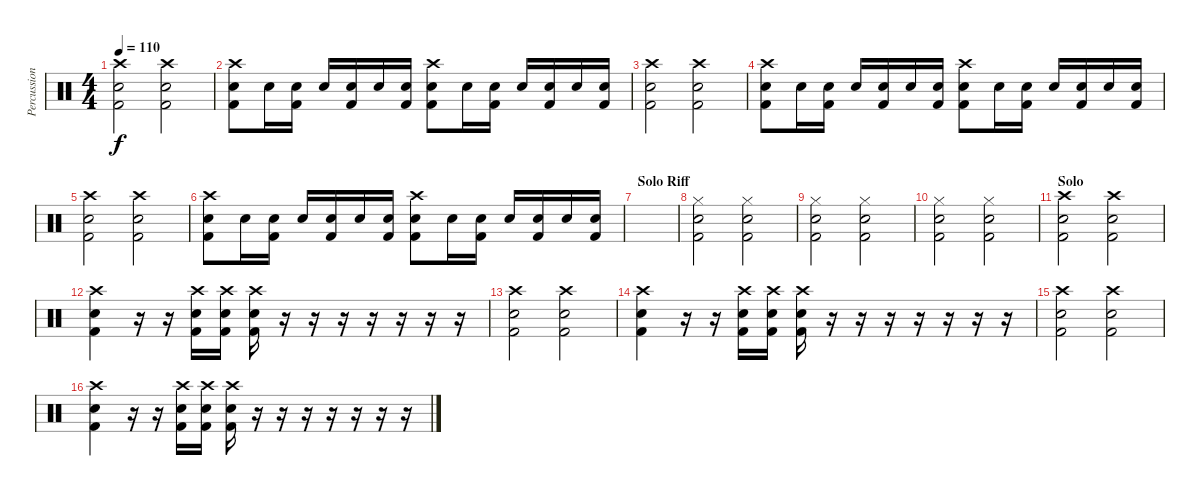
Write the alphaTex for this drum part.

\track ("Percussion" "Percussion") {instrument percussion}
\staff {score}
\articulation defaults
\ts (4 4)
\tempo 110
\clef neutral
\ks c
("Kick (hit) 2" "Snare (hit) 2" "Crash high (hit)").2{dy f} ("Snare (hit) 2" "Kick (hit) 2" "Crash high (hit)").2 |
("Kick (hit) 2" "Snare (hit) 2" "Crash high (hit)").8 "Snare (hit) 2".16 ("Kick (hit) 2" "Snare (hit) 2").16 "Snare (hit) 2".16 ("Kick (hit) 2" "Snare (hit) 2").16 "Snare (hit) 2".16 ("Kick (hit) 2" "Snare (hit) 2").16 ("Kick (hit) 2" "Snare (hit) 2" "Crash high (hit)").8 "Snare (hit) 2".16 ("Kick (hit) 2" "Snare (hit) 2").16 "Snare (hit) 2".16 ("Kick (hit) 2" "Snare (hit) 2").16 "Snare (hit) 2".16 ("Kick (hit) 2" "Snare (hit) 2").16 |
("Kick (hit) 2" "Snare (hit) 2" "Crash high (hit)").2 ("Snare (hit) 2" "Kick (hit) 2" "Crash high (hit)").2 |
("Kick (hit) 2" "Snare (hit) 2" "Crash high (hit)").8 "Snare (hit) 2".16 ("Kick (hit) 2" "Snare (hit) 2").16 "Snare (hit) 2".16 ("Kick (hit) 2" "Snare (hit) 2").16 "Snare (hit) 2".16 ("Kick (hit) 2" "Snare (hit) 2").16 ("Kick (hit) 2" "Snare (hit) 2" "Crash high (hit)").8 "Snare (hit) 2".16 ("Kick (hit) 2" "Snare (hit) 2").16 "Snare (hit) 2".16 ("Kick (hit) 2" "Snare (hit) 2").16 "Snare (hit) 2".16 ("Kick (hit) 2" "Snare (hit) 2").16 |
("Kick (hit) 2" "Snare (hit) 2" "Crash high (hit)").2 ("Snare (hit) 2" "Kick (hit) 2" "Crash high (hit)").2 |
("Kick (hit) 2" "Snare (hit) 2" "Crash high (hit)").8 "Snare (hit) 2".16 ("Kick (hit) 2" "Snare (hit) 2").16 "Snare (hit) 2".16 ("Kick (hit) 2" "Snare (hit) 2").16 "Snare (hit) 2".16 ("Kick (hit) 2" "Snare (hit) 2").16 ("Kick (hit) 2" "Snare (hit) 2" "Crash high (hit)").8 "Snare (hit) 2".16 ("Kick (hit) 2" "Snare (hit) 2").16 "Snare (hit) 2".16 ("Kick (hit) 2" "Snare (hit) 2").16 "Snare (hit) 2".16 ("Kick (hit) 2" "Snare (hit) 2").16 |
\section ("" "Solo Riff")
|
("Hi-Hat (closed)" "Kick (hit) 2" "Snare (hit) 2").2 ("Hi-Hat (closed)" "Kick (hit) 2" "Snare (hit) 2").2 |
("Hi-Hat (closed)" "Kick (hit) 2" "Snare (hit) 2").2 ("Hi-Hat (closed)" "Kick (hit) 2" "Snare (hit) 2").2 |
("Hi-Hat (closed)" "Kick (hit) 2" "Snare (hit) 2").2 ("Hi-Hat (closed)" "Kick (hit) 2" "Snare (hit) 2").2 |
\section ("" "Solo")
("Crash high (hit)" "Snare (hit) 2" "Kick (hit) 2").2 ("Kick (hit) 2" "Snare (hit) 2" "Crash high (hit)").2 |
("Crash high (hit)" "Kick (hit) 2" "Snare (hit) 2").4 r.16 r.16 ("Kick (hit) 2" "Snare (hit) 2" "Crash high (hit)").16 ("Crash high (hit)" "Kick (hit) 2" "Snare (hit) 2").16 ("Crash high (hit)" "Kick (hit) 2" "Snare (hit) 2").16 r.16 r.16 r.16 r.16 r.16 r.16 r.16 |
("Crash high (hit)" "Snare (hit) 2" "Kick (hit) 2").2 ("Kick (hit) 2" "Snare (hit) 2" "Crash high (hit)").2 |
("Crash high (hit)" "Kick (hit) 2" "Snare (hit) 2").4 r.16 r.16 ("Kick (hit) 2" "Snare (hit) 2" "Crash high (hit)").16 ("Crash high (hit)" "Kick (hit) 2" "Snare (hit) 2").16 ("Crash high (hit)" "Kick (hit) 2" "Snare (hit) 2").16 r.16 r.16 r.16 r.16 r.16 r.16 r.16 |
("Crash high (hit)" "Snare (hit) 2" "Kick (hit) 2").2 ("Kick (hit) 2" "Snare (hit) 2" "Crash high (hit)").2 |
("Crash high (hit)" "Kick (hit) 2" "Snare (hit) 2").4 r.16 r.16 ("Kick (hit) 2" "Snare (hit) 2" "Crash high (hit)").16 ("Crash high (hit)" "Kick (hit) 2" "Snare (hit) 2").16 ("Crash high (hit)" "Kick (hit) 2" "Snare (hit) 2").16 r.16 r.16 r.16 r.16 r.16 r.16 r.16
